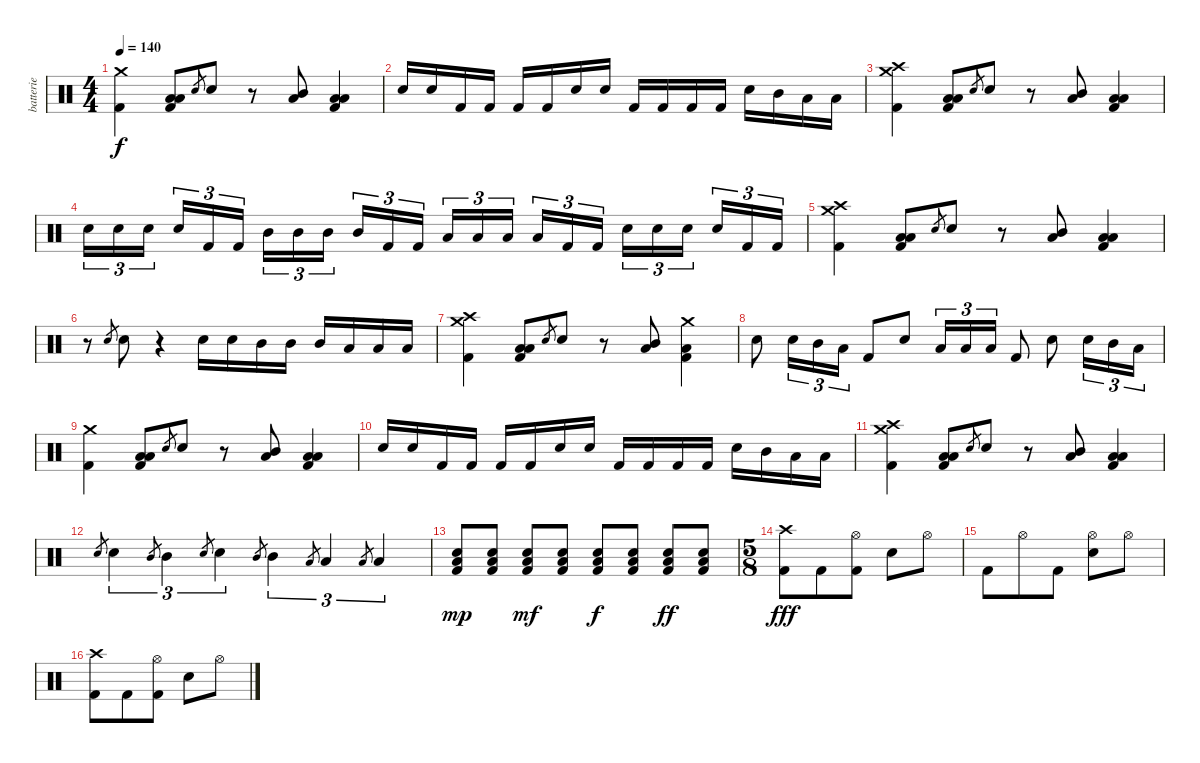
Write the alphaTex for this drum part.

\track ("batterie" "batterie") {instrument percussion}
\staff {score}
\articulation defaults
\ts (4 4)
\tempo 140
\clef neutral
\ks c
("Crash medium (hit)" "Kick (hit) 2").4{dy f} ("Low Tom (hit)" "Low Floor Tom (hit)" "Kick (hit) 2").8 "Electric Snare (hit)".8{gr} "Electric Snare (hit)".8 r.8 ("Mid Tom (hit)" "Low Tom (hit)").8 ("Low Tom (hit)" "Low Floor Tom (hit)" "Kick (hit) 2").4 |
"Electric Snare (hit)".16 "Electric Snare (hit)".16 "Kick (hit) 2".16 "Kick (hit) 2".16 "Kick (hit) 2".16 "Kick (hit) 2".16 "Electric Snare (hit)".16 "Electric Snare (hit)".16 "Kick (hit) 2".16 "Kick (hit) 2".16 "Kick (hit) 2".16 "Kick (hit) 2".16 "Electric Snare (hit)".16 "Mid Tom (hit)".16 "Low Tom (hit)".16 "Low Floor Tom (hit)".16 |
("Crash high (hit)" "Crash medium (hit)" "Kick (hit) 2").4 ("Low Tom (hit)" "Low Floor Tom (hit)" "Kick (hit) 2").8 "Electric Snare (hit)".8{gr} "Electric Snare (hit)".8 r.8 ("Mid Tom (hit)" "Low Tom (hit)").8 ("Low Tom (hit)" "Low Floor Tom (hit)" "Kick (hit) 2").4 |
"Electric Snare (hit)".16{tu (3 2)} "Electric Snare (hit)".16{tu (3 2)} "Electric Snare (hit)".16{tu (3 2)} "Electric Snare (hit)".16{tu (3 2)} "Kick (hit) 2".16{tu (3 2)} "Kick (hit) 2".16{tu (3 2)} "Mid Tom (hit)".16{tu (3 2)} "Mid Tom (hit)".16{tu (3 2)} "Mid Tom (hit)".16{tu (3 2)} "Mid Tom (hit)".16{tu (3 2)} "Kick (hit) 2".16{tu (3 2)} "Kick (hit) 2".16{tu (3 2)} "Low Tom (hit)".16{tu (3 2)} "Low Tom (hit)".16{tu (3 2)} "Low Tom (hit)".16{tu (3 2)} "Low Tom (hit)".16{tu (3 2)} "Kick (hit) 2".16{tu (3 2)} "Kick (hit) 2".16{tu (3 2)} "Electric Snare (hit)".16{tu (3 2)} "Electric Snare (hit)".16{tu (3 2)} "Electric Snare (hit)".16{tu (3 2)} "Electric Snare (hit)".16{tu (3 2)} "Kick (hit) 2".16{tu (3 2)} "Kick (hit) 2".16{tu (3 2)} |
("Crash high (hit)" "Crash medium (hit)" "Kick (hit) 2").4 ("Low Tom (hit)" "Low Floor Tom (hit)" "Kick (hit) 2").8 "Electric Snare (hit)".8{gr} "Electric Snare (hit)".8 r.8 ("Mid Tom (hit)" "Low Tom (hit)").8 ("Low Tom (hit)" "Low Floor Tom (hit)" "Kick (hit) 2").4 |
r.8 "Electric Snare (hit)".8{gr} "Electric Snare (hit)".8 r.4 "Electric Snare (hit)".16 "Electric Snare (hit)".16 "Mid Tom (hit)".16 "Mid Tom (hit)".16 "Mid Tom (hit)".16 "Low Tom (hit)".16 "Low Floor Tom (hit)".16 "Low Floor Tom (hit)".16 |
("Crash high (hit)" "Crash medium (hit)" "Kick (hit) 2").4 ("Low Tom (hit)" "Low Floor Tom (hit)" "Kick (hit) 2").8 "Electric Snare (hit)".8{gr} "Electric Snare (hit)".8 r.8 ("Mid Tom (hit)" "Low Tom (hit)").8 ("Crash medium (hit)" "Low Floor Tom (hit)" "Kick (hit) 2").4 |
"Electric Snare (hit)".8 "Electric Snare (hit)".16{tu (3 2)} "Mid Tom (hit)".16{tu (3 2)} "Low Floor Tom (hit)".16{tu (3 2)} "Kick (hit) 2".8 "Electric Snare (hit)".8 "Low Tom (hit)".16{tu (3 2)} "Low Tom (hit)".16{tu (3 2)} "Low Floor Tom (hit)".16{tu (3 2)} "Kick (hit) 2".8 "Electric Snare (hit)".8 "Electric Snare (hit)".16{tu (3 2)} "Mid Tom (hit)".16{tu (3 2)} "Low Floor Tom (hit)".16{tu (3 2)} |
("Crash medium (hit)" "Kick (hit) 2").4 ("Low Tom (hit)" "Low Floor Tom (hit)" "Kick (hit) 2").8 "Electric Snare (hit)".8{gr} "Electric Snare (hit)".8 r.8 ("Mid Tom (hit)" "Low Tom (hit)").8 ("Low Tom (hit)" "Low Floor Tom (hit)" "Kick (hit) 2").4 |
"Electric Snare (hit)".16 "Electric Snare (hit)".16 "Kick (hit) 2".16 "Kick (hit) 2".16 "Kick (hit) 2".16 "Kick (hit) 2".16 "Electric Snare (hit)".16 "Electric Snare (hit)".16 "Kick (hit) 2".16 "Kick (hit) 2".16 "Kick (hit) 2".16 "Kick (hit) 2".16 "Electric Snare (hit)".16 "Mid Tom (hit)".16 "Low Tom (hit)".16 "Low Floor Tom (hit)".16 |
("Crash high (hit)" "Crash medium (hit)" "Kick (hit) 2").4 ("Low Tom (hit)" "Low Floor Tom (hit)" "Kick (hit) 2").8 "Electric Snare (hit)".8{gr} "Electric Snare (hit)".8 r.8 ("Mid Tom (hit)" "Low Tom (hit)").8 ("Low Tom (hit)" "Low Floor Tom (hit)" "Kick (hit) 2").4 |
"Electric Snare (hit)".8{gr} "Electric Snare (hit)".4{tu (3 2)} "Mid Tom (hit)".8{gr} "Mid Tom (hit)".4{tu (3 2)} "Electric Snare (hit)".8{gr} "Electric Snare (hit)".4{tu (3 2)} "Mid Tom (hit)".8{gr} "Mid Tom (hit)".4{tu (3 2)} "Low Tom (hit)".8{gr} "Low Tom (hit)".4{tu (3 2)} "Low Floor Tom (hit)".8{gr} "Low Floor Tom (hit)".4{tu (3 2)} |
("Electric Snare (hit)" "Low Floor Tom (hit)" "Kick (hit) 2").8{dy mp} ("Electric Snare (hit)" "Low Floor Tom (hit)" "Kick (hit) 2").8 ("Electric Snare (hit)" "Low Floor Tom (hit)" "Kick (hit) 2").8{dy mf} ("Electric Snare (hit)" "Low Floor Tom (hit)" "Kick (hit) 2").8 ("Electric Snare (hit)" "Low Floor Tom (hit)" "Kick (hit) 2").8{dy f} ("Electric Snare (hit)" "Low Floor Tom (hit)" "Kick (hit) 2").8 ("Electric Snare (hit)" "Low Floor Tom (hit)" "Kick (hit) 2").8{dy ff} ("Electric Snare (hit)" "Low Floor Tom (hit)" "Kick (hit) 2").8 |
\ts (5 8)
("Crash high (hit)" "Kick (hit) 2").8{dy fff} "Kick (hit) 2".8 ("Hi-Hat (open)" "Kick (hit) 2").8 "Electric Snare (hit)".8 "Hi-Hat (open)".8 |
"Kick (hit) 2".8 "Hi-Hat (open)".8 "Kick (hit) 2".8 ("Hi-Hat (open)" "Electric Snare (hit)").8 "Hi-Hat (open)".8 |
("Crash high (hit)" "Kick (hit) 2").8 "Kick (hit) 2".8 ("Hi-Hat (open)" "Kick (hit) 2").8 "Electric Snare (hit)".8 "Hi-Hat (open)".8
